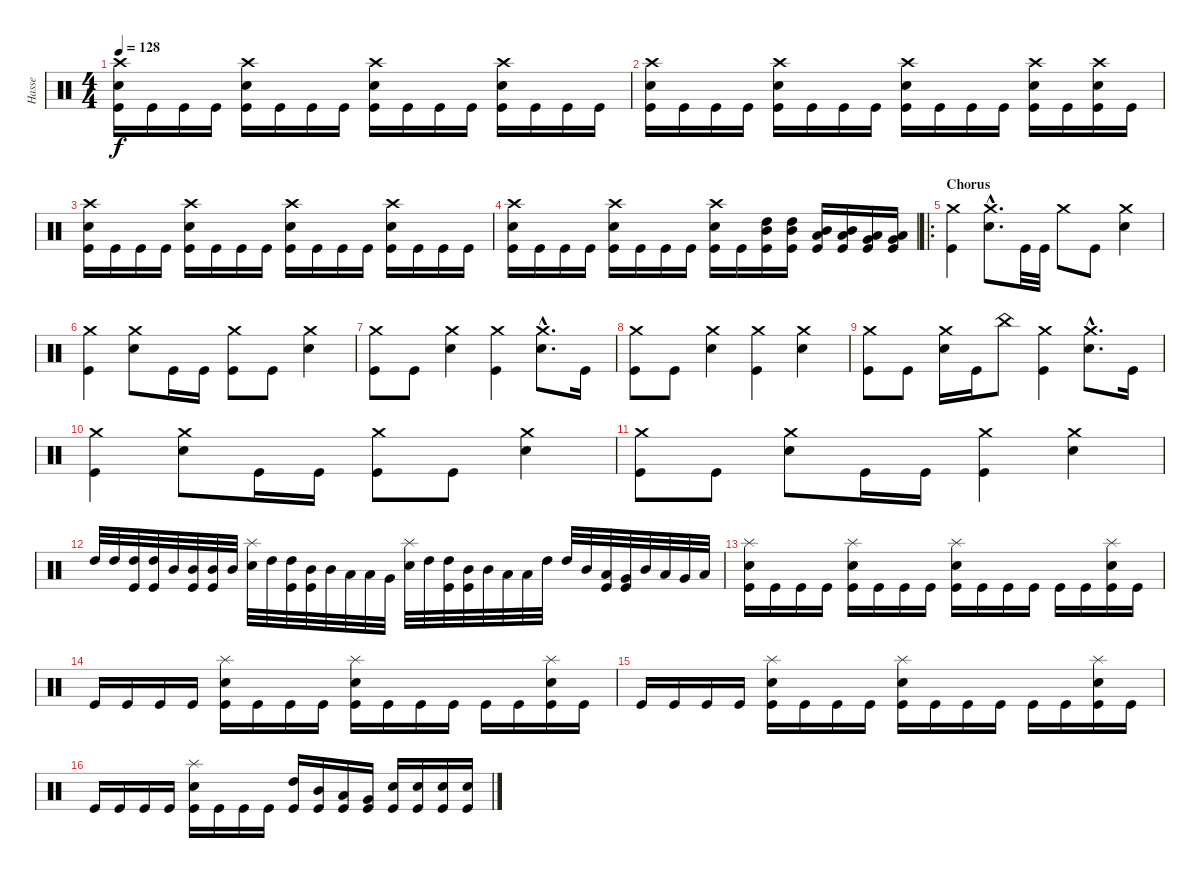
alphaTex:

\track ("Hasse" "Hasse") {instrument percussion}
\staff {score}
\articulation defaults
\ts (4 4)
\tempo 128
\clef neutral
\ks c
("Crash high (hit)" "Snare (hit) 2" "Kick (hit)").16{dy f} "Kick (hit)".16 "Kick (hit)".16 "Kick (hit)".16 ("Crash high (hit)" "Snare (hit) 2" "Kick (hit)").16 "Kick (hit)".16 "Kick (hit)".16 "Kick (hit)".16 ("Crash high (hit)" "Snare (hit) 2" "Kick (hit)").16 "Kick (hit)".16 "Kick (hit)".16 "Kick (hit)".16 ("Crash high (hit)" "Snare (hit) 2" "Kick (hit)").16 "Kick (hit)".16 "Kick (hit)".16 "Kick (hit)".16 |
("Crash high (hit)" "Snare (hit) 2" "Kick (hit)").16 "Kick (hit)".16 "Kick (hit)".16 "Kick (hit)".16 ("Crash high (hit)" "Snare (hit) 2" "Kick (hit)").16 "Kick (hit)".16 "Kick (hit)".16 "Kick (hit)".16 ("Crash high (hit)" "Snare (hit) 2" "Kick (hit)").16 "Kick (hit)".16 "Kick (hit)".16 "Kick (hit)".16 ("Crash high (hit)" "Snare (hit) 2" "Kick (hit)").16 "Kick (hit)".16 ("Crash high (hit)" "Snare (hit) 2" "Kick (hit)").16 "Kick (hit)".16 |
("Crash high (hit)" "Snare (hit) 2" "Kick (hit)").16 "Kick (hit)".16 "Kick (hit)".16 "Kick (hit)".16 ("Crash high (hit)" "Snare (hit) 2" "Kick (hit)").16 "Kick (hit)".16 "Kick (hit)".16 "Kick (hit)".16 ("Crash high (hit)" "Snare (hit) 2" "Kick (hit)").16 "Kick (hit)".16 "Kick (hit)".16 "Kick (hit)".16 ("Crash high (hit)" "Snare (hit) 2" "Kick (hit)").16 "Kick (hit)".16 "Kick (hit)".16 "Kick (hit)".16 |
("Crash high (hit)" "Snare (hit) 2" "Kick (hit)").16 "Kick (hit)".16 "Kick (hit)".16 "Kick (hit)".16 ("Crash high (hit)" "Snare (hit) 2" "Kick (hit)").16 "Kick (hit)".16 "Kick (hit)".16 "Kick (hit)".16 ("Crash high (hit)" "Snare (hit) 2" "Kick (hit)").16 "Kick (hit)".16 ("High Tom (hit)" "Mid Tom (hit)" "Kick (hit)").16 ("High Tom (hit)" "Mid Tom (hit)" "Kick (hit)").16 ("Mid Tom (hit)" "Low Tom (hit)" "Kick (hit)").16 ("Mid Tom (hit)" "Low Tom (hit)" "Kick (hit)").16 ("Low Tom (hit)" "Very Low Tom (hit)" "Kick (hit)").16 ("Low Tom (hit)" "Very Low Tom (hit)" "Kick (hit)").16 |
\ro
\section ("" "Chorus")
("Crash medium (hit)" "Kick (hit)").4 ("Crash medium (hit)"{hac} "Snare (hit) 2"{hac}).8{d} "Kick (hit)".32 "Kick (hit)".32 "Crash medium (hit)".8 "Kick (hit)".8 ("Crash medium (hit)" "Snare (hit) 2").4 |
("Crash medium (hit)" "Kick (hit)").4 ("Crash medium (hit)" "Snare (hit) 2").8 "Kick (hit)".16 "Kick (hit)".16 ("Crash medium (hit)" "Kick (hit)").8 "Kick (hit)".8 ("Crash medium (hit)" "Snare (hit) 2").4 |
("Crash medium (hit)" "Kick (hit)").8 "Kick (hit)".8 ("Crash medium (hit)" "Snare (hit) 2").4 ("Crash medium (hit)" "Kick (hit)").4 ("Crash medium (hit)"{hac} "Snare (hit) 2"{hac}).8{d} "Kick (hit)".16 |
("Crash medium (hit)" "Kick (hit)").8 "Kick (hit)".8 ("Crash medium (hit)" "Snare (hit) 2").4 ("Crash medium (hit)" "Kick (hit)").4 ("Crash medium (hit)" "Snare (hit) 2").4 |
("Crash medium (hit)" "Kick (hit)").8 "Kick (hit)".8 ("Crash medium (hit)" "Snare (hit) 2").16 "Kick (hit)".16 "China (hit)".8 ("Crash medium (hit)" "Kick (hit)").4 ("Crash medium (hit)"{hac} "Snare (hit) 2"{hac}).8{d} "Kick (hit)".16 |
("Crash medium (hit)" "Kick (hit)").4 ("Crash medium (hit)" "Snare (hit) 2").8 "Kick (hit)".16 "Kick (hit)".16 ("Crash medium (hit)" "Kick (hit)").8 "Kick (hit)".8 ("Crash medium (hit)" "Snare (hit) 2").4 |
("Crash medium (hit)" "Kick (hit)").8 "Kick (hit)".8 ("Crash medium (hit)" "Snare (hit) 2").8 "Kick (hit)".16 "Kick (hit)".16 ("Crash medium (hit)" "Kick (hit)").4 ("Crash medium (hit)" "Snare (hit) 2").4 |
"High Tom (hit)".32{volume 13} "High Tom (hit)".32 ("High Tom (hit)" "Kick (hit)").32 ("High Tom (hit)" "Kick (hit)").32 "Mid Tom (hit)".32 ("Mid Tom (hit)" "Kick (hit)").32 ("Mid Tom (hit)" "Kick (hit)").32 "Mid Tom (hit)".32 ("Splash (hit)" "Snare (hit) 2").32 "High Tom (hit)".32 ("High Tom (hit)" "Kick (hit)").32 ("Mid Tom (hit)" "Kick (hit)").32 "Mid Tom (hit)".32 "Low Tom (hit)".32 "Low Tom (hit)".32 "Very Low Tom (hit)".32 ("Splash (hit)" "Snare (hit) 2").32 "High Tom (hit)".32 ("High Tom (hit)" "Kick (hit)").32 ("Mid Tom (hit)" "Kick (hit)").32 "Mid Tom (hit)".32 "Low Tom (hit)".32 "Low Tom (hit)".32 "High Tom (hit)".32 "High Tom (hit)".32 "Mid Tom (hit)".32 ("Low Tom (hit)" "Kick (hit)").32 ("Very Low Tom (hit)" "Kick (hit)").32 "Mid Tom (hit)".32 "Low Tom (hit)".32 "Very Low Tom (hit)".32 "Low Floor Tom (hit)".32 |
("Splash (hit)" "Snare (hit) 2" "Kick (hit)").16{volume 16} "Kick (hit)".16 "Kick (hit)".16 "Kick (hit)".16 ("Splash (hit)" "Snare (hit) 2" "Kick (hit)").16 "Kick (hit)".16 "Kick (hit)".16 "Kick (hit)".16 ("Splash (hit)" "Snare (hit) 2" "Kick (hit)").16 "Kick (hit)".16 "Kick (hit)".16 "Kick (hit)".16 "Kick (hit)".16 "Kick (hit)".16 ("Splash (hit)" "Snare (hit) 2" "Kick (hit)").16 "Kick (hit)".16 |
"Kick (hit)".16 "Kick (hit)".16 "Kick (hit)".16 "Kick (hit)".16 ("Splash (hit)" "Snare (hit) 2" "Kick (hit)").16 "Kick (hit)".16 "Kick (hit)".16 "Kick (hit)".16 ("Splash (hit)" "Snare (hit) 2" "Kick (hit)").16 "Kick (hit)".16 "Kick (hit)".16 "Kick (hit)".16 "Kick (hit)".16 "Kick (hit)".16 ("Splash (hit)" "Snare (hit) 2" "Kick (hit)").16 "Kick (hit)".16 |
"Kick (hit)".16 "Kick (hit)".16 "Kick (hit)".16 "Kick (hit)".16 ("Splash (hit)" "Snare (hit) 2" "Kick (hit)").16 "Kick (hit)".16 "Kick (hit)".16 "Kick (hit)".16 ("Splash (hit)" "Snare (hit) 2" "Kick (hit)").16 "Kick (hit)".16 "Kick (hit)".16 "Kick (hit)".16 "Kick (hit)".16 "Kick (hit)".16 ("Splash (hit)" "Snare (hit) 2" "Kick (hit)").16 "Kick (hit)".16 |
"Kick (hit)".16 "Kick (hit)".16 "Kick (hit)".16 "Kick (hit)".16 ("Splash (hit)" "Snare (hit) 2" "Kick (hit)").16 "Kick (hit)".16 "Kick (hit)".16 "Kick (hit)".16 ("High Tom (hit)" "Kick (hit)").16 ("Mid Tom (hit)" "Kick (hit)").16 ("Low Tom (hit)" "Kick (hit)").16 ("Very Low Tom (hit)" "Kick (hit)").16 ("Snare (hit) 2" "Kick (hit)").16 ("Snare (hit) 2" "Kick (hit)").16 ("Snare (hit) 2" "Kick (hit)").16 ("Snare (hit) 2" "Kick (hit)").16
